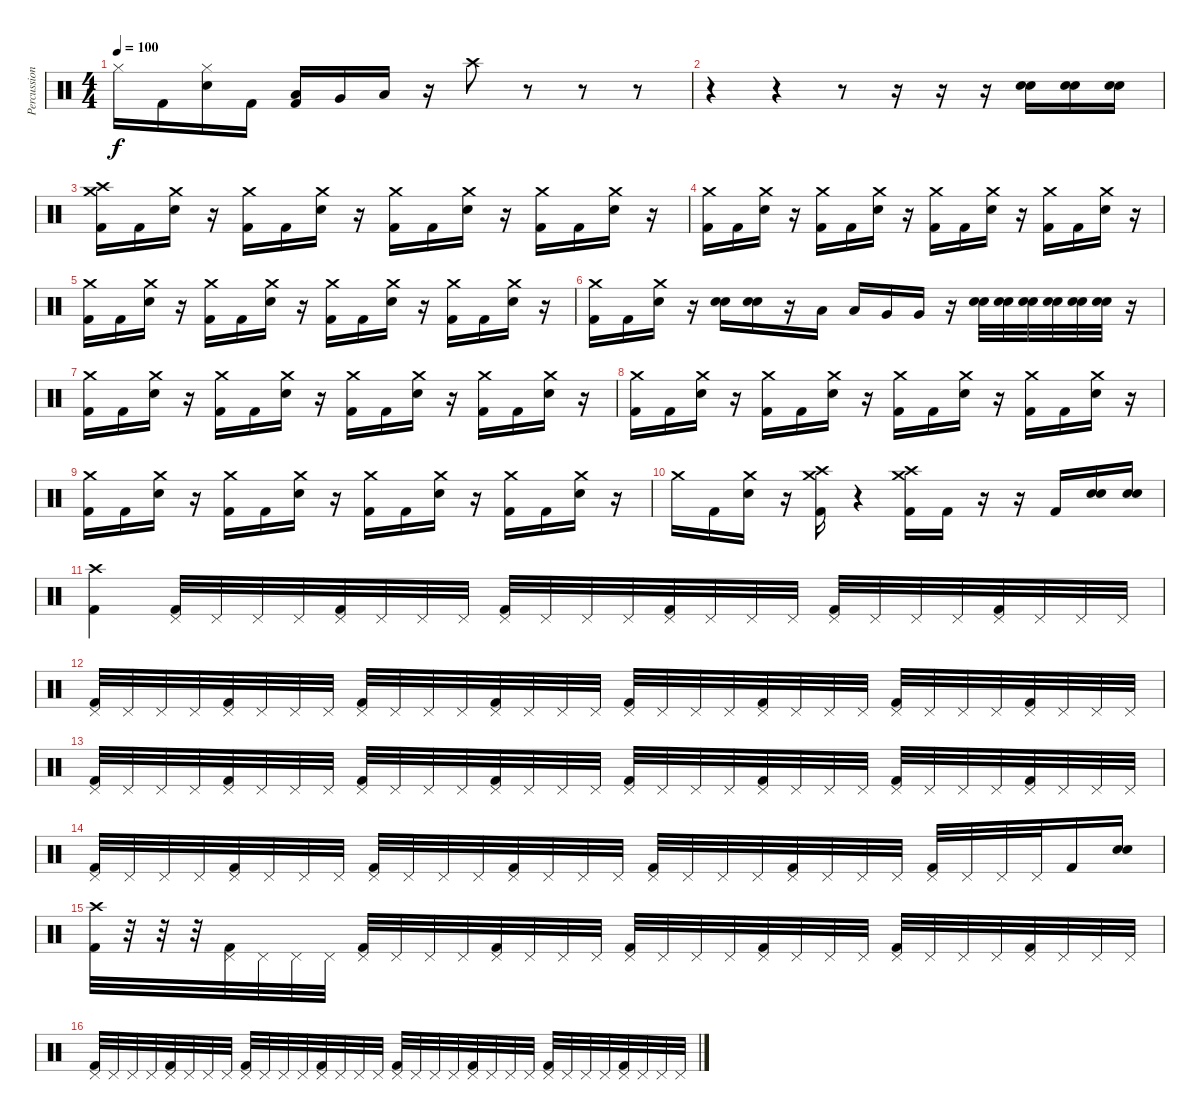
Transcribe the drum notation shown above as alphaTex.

\track ("Percussion" "Percussion") {instrument percussion}
\staff {score}
\articulation defaults
\ts (4 4)
\tempo 100
\clef neutral
\ks c "Hi-Hat (closed)".16{dy f} "Kick (hit) 2".16
("Hi-Hat (closed)" "Electric Snare (hit)").16 "Kick (hit) 2".16 ("Low Tom (hit)" "Kick (hit) 2").16 "Very Low Tom (hit)".16 "Low Floor Tom (hit)".16 r.16 "Crash high (hit)".8 r.8 r.8 r.8 |
r.4 r.4 r.8 r.16 r.16 r.16 ("Electric Snare (hit)" "Electric Snare (hit)").16 ("Electric Snare (hit)" "Electric Snare (hit)").16 ("Electric Snare (hit)" "Electric Snare (hit)").16 |
("Crash medium (hit)" "Crash high (hit)" "Kick (hit) 2").16 "Kick (hit) 2".16 ("Crash medium (hit)" "Electric Snare (hit)").16 r.16 ("Crash medium (hit)" "Kick (hit) 2").16 "Kick (hit) 2".16 ("Crash medium (hit)" "Electric Snare (hit)").16 r.16 ("Crash medium (hit)" "Kick (hit) 2").16 "Kick (hit) 2".16 ("Crash medium (hit)" "Electric Snare (hit)").16 r.16 ("Crash medium (hit)" "Kick (hit) 2").16 "Kick (hit) 2".16 ("Crash medium (hit)" "Electric Snare (hit)").16 r.16 |
("Crash medium (hit)" "Kick (hit) 2").16 "Kick (hit) 2".16 ("Crash medium (hit)" "Electric Snare (hit)").16 r.16 ("Crash medium (hit)" "Kick (hit) 2").16 "Kick (hit) 2".16 ("Crash medium (hit)" "Electric Snare (hit)").16 r.16 ("Crash medium (hit)" "Kick (hit) 2").16 "Kick (hit) 2".16 ("Crash medium (hit)" "Electric Snare (hit)").16 r.16 ("Crash medium (hit)" "Kick (hit) 2").16 "Kick (hit) 2".16 ("Crash medium (hit)" "Electric Snare (hit)").16 r.16 |
("Crash medium (hit)" "Kick (hit) 2").16 "Kick (hit) 2".16 ("Crash medium (hit)" "Electric Snare (hit)").16 r.16 ("Crash medium (hit)" "Kick (hit) 2").16 "Kick (hit) 2".16 ("Crash medium (hit)" "Electric Snare (hit)").16 r.16 ("Crash medium (hit)" "Kick (hit) 2").16 "Kick (hit) 2".16 ("Crash medium (hit)" "Electric Snare (hit)").16 r.16 ("Crash medium (hit)" "Kick (hit) 2").16 "Kick (hit) 2".16 ("Crash medium (hit)" "Electric Snare (hit)").16 r.16 |
("Crash medium (hit)" "Kick (hit) 2").16 "Kick (hit) 2".16 ("Crash medium (hit)" "Electric Snare (hit)").16 r.16 ("Electric Snare (hit)" "Electric Snare (hit)").16 ("Electric Snare (hit)" "Electric Snare (hit)").16 r.16 "Low Tom (hit)".16 "Low Tom (hit)".16 "Very Low Tom (hit)".16 "Very Low Tom (hit)".16 r.16 ("Electric Snare (hit)" "Electric Snare (hit)").32 ("Electric Snare (hit)" "Electric Snare (hit)").32 ("Electric Snare (hit)" "Electric Snare (hit)").32 ("Electric Snare (hit)" "Electric Snare (hit)").32 ("Electric Snare (hit)" "Electric Snare (hit)").32 ("Electric Snare (hit)" "Electric Snare (hit)").32 r.16 |
("Crash medium (hit)" "Kick (hit) 2").16 "Kick (hit) 2".16 ("Crash medium (hit)" "Electric Snare (hit)").16 r.16 ("Crash medium (hit)" "Kick (hit) 2").16 "Kick (hit) 2".16 ("Crash medium (hit)" "Electric Snare (hit)").16 r.16 ("Crash medium (hit)" "Kick (hit) 2").16 "Kick (hit) 2".16 ("Crash medium (hit)" "Electric Snare (hit)").16 r.16 ("Crash medium (hit)" "Kick (hit) 2").16 "Kick (hit) 2".16 ("Crash medium (hit)" "Electric Snare (hit)").16 r.16 |
("Crash medium (hit)" "Kick (hit) 2").16 "Kick (hit) 2".16 ("Crash medium (hit)" "Electric Snare (hit)").16 r.16 ("Crash medium (hit)" "Kick (hit) 2").16 "Kick (hit) 2".16 ("Crash medium (hit)" "Electric Snare (hit)").16 r.16 ("Crash medium (hit)" "Kick (hit) 2").16 "Kick (hit) 2".16 ("Crash medium (hit)" "Electric Snare (hit)").16 r.16 ("Crash medium (hit)" "Kick (hit) 2").16 "Kick (hit) 2".16 ("Crash medium (hit)" "Electric Snare (hit)").16 r.16 |
("Crash medium (hit)" "Kick (hit) 2").16 "Kick (hit) 2".16 ("Crash medium (hit)" "Electric Snare (hit)").16 r.16 ("Crash medium (hit)" "Kick (hit) 2").16 "Kick (hit) 2".16 ("Crash medium (hit)" "Electric Snare (hit)").16 r.16 ("Crash medium (hit)" "Kick (hit) 2").16 "Kick (hit) 2".16 ("Crash medium (hit)" "Electric Snare (hit)").16 r.16 ("Crash medium (hit)" "Kick (hit) 2").16 "Kick (hit) 2".16 ("Crash medium (hit)" "Electric Snare (hit)").16 r.16 |
"Crash medium (hit)".16 "Kick (hit) 2".16 ("Crash medium (hit)" "Electric Snare (hit)").16 r.16 ("Crash high (hit)" "Crash medium (hit)" "Kick (hit) 2").16 r.4 ("Crash high (hit)" "Crash medium (hit)" "Kick (hit) 2").16 "Kick (hit) 2".16 r.16 r.16 "Kick (hit) 2".16 ("Electric Snare (hit)" "Electric Snare (hit)").16 ("Electric Snare (hit)" "Electric Snare (hit)").16 |
("Crash high (hit)" "Kick (hit) 2").4 ("Pedal Hi-Hat (hit)" "Kick (hit) 2").32 "Pedal Hi-Hat (hit)".32 "Pedal Hi-Hat (hit)".32 "Pedal Hi-Hat (hit)".32 ("Pedal Hi-Hat (hit)" "Kick (hit) 2").32 "Pedal Hi-Hat (hit)".32 "Pedal Hi-Hat (hit)".32 "Pedal Hi-Hat (hit)".32 ("Pedal Hi-Hat (hit)" "Kick (hit) 2").32 "Pedal Hi-Hat (hit)".32 "Pedal Hi-Hat (hit)".32 "Pedal Hi-Hat (hit)".32 ("Pedal Hi-Hat (hit)" "Kick (hit) 2").32 "Pedal Hi-Hat (hit)".32 "Pedal Hi-Hat (hit)".32 "Pedal Hi-Hat (hit)".32 ("Pedal Hi-Hat (hit)" "Kick (hit) 2").32 "Pedal Hi-Hat (hit)".32 "Pedal Hi-Hat (hit)".32 "Pedal Hi-Hat (hit)".32 ("Pedal Hi-Hat (hit)" "Kick (hit) 2").32 "Pedal Hi-Hat (hit)".32 "Pedal Hi-Hat (hit)".32 "Pedal Hi-Hat (hit)".32 |
("Pedal Hi-Hat (hit)" "Kick (hit) 2").32 "Pedal Hi-Hat (hit)".32 "Pedal Hi-Hat (hit)".32 "Pedal Hi-Hat (hit)".32 ("Pedal Hi-Hat (hit)" "Kick (hit) 2").32 "Pedal Hi-Hat (hit)".32 "Pedal Hi-Hat (hit)".32 "Pedal Hi-Hat (hit)".32 ("Pedal Hi-Hat (hit)" "Kick (hit) 2").32 "Pedal Hi-Hat (hit)".32 "Pedal Hi-Hat (hit)".32 "Pedal Hi-Hat (hit)".32 ("Pedal Hi-Hat (hit)" "Kick (hit) 2").32 "Pedal Hi-Hat (hit)".32 "Pedal Hi-Hat (hit)".32 "Pedal Hi-Hat (hit)".32 ("Pedal Hi-Hat (hit)" "Kick (hit) 2").32 "Pedal Hi-Hat (hit)".32 "Pedal Hi-Hat (hit)".32 "Pedal Hi-Hat (hit)".32 ("Pedal Hi-Hat (hit)" "Kick (hit) 2").32 "Pedal Hi-Hat (hit)".32 "Pedal Hi-Hat (hit)".32 "Pedal Hi-Hat (hit)".32 ("Pedal Hi-Hat (hit)" "Kick (hit) 2").32 "Pedal Hi-Hat (hit)".32 "Pedal Hi-Hat (hit)".32 "Pedal Hi-Hat (hit)".32 ("Pedal Hi-Hat (hit)" "Kick (hit) 2").32 "Pedal Hi-Hat (hit)".32 "Pedal Hi-Hat (hit)".32 "Pedal Hi-Hat (hit)".32 |
("Pedal Hi-Hat (hit)" "Kick (hit) 2").32 "Pedal Hi-Hat (hit)".32 "Pedal Hi-Hat (hit)".32 "Pedal Hi-Hat (hit)".32 ("Pedal Hi-Hat (hit)" "Kick (hit) 2").32 "Pedal Hi-Hat (hit)".32 "Pedal Hi-Hat (hit)".32 "Pedal Hi-Hat (hit)".32 ("Pedal Hi-Hat (hit)" "Kick (hit) 2").32 "Pedal Hi-Hat (hit)".32 "Pedal Hi-Hat (hit)".32 "Pedal Hi-Hat (hit)".32 ("Pedal Hi-Hat (hit)" "Kick (hit) 2").32 "Pedal Hi-Hat (hit)".32 "Pedal Hi-Hat (hit)".32 "Pedal Hi-Hat (hit)".32 ("Pedal Hi-Hat (hit)" "Kick (hit) 2").32 "Pedal Hi-Hat (hit)".32 "Pedal Hi-Hat (hit)".32 "Pedal Hi-Hat (hit)".32 ("Pedal Hi-Hat (hit)" "Kick (hit) 2").32 "Pedal Hi-Hat (hit)".32 "Pedal Hi-Hat (hit)".32 "Pedal Hi-Hat (hit)".32 ("Pedal Hi-Hat (hit)" "Kick (hit) 2").32 "Pedal Hi-Hat (hit)".32 "Pedal Hi-Hat (hit)".32 "Pedal Hi-Hat (hit)".32 ("Pedal Hi-Hat (hit)" "Kick (hit) 2").32 "Pedal Hi-Hat (hit)".32 "Pedal Hi-Hat (hit)".32 "Pedal Hi-Hat (hit)".32 |
("Pedal Hi-Hat (hit)" "Kick (hit) 2").32 "Pedal Hi-Hat (hit)".32 "Pedal Hi-Hat (hit)".32 "Pedal Hi-Hat (hit)".32 ("Pedal Hi-Hat (hit)" "Kick (hit) 2").32 "Pedal Hi-Hat (hit)".32 "Pedal Hi-Hat (hit)".32 "Pedal Hi-Hat (hit)".32 ("Pedal Hi-Hat (hit)" "Kick (hit) 2").32 "Pedal Hi-Hat (hit)".32 "Pedal Hi-Hat (hit)".32 "Pedal Hi-Hat (hit)".32 ("Pedal Hi-Hat (hit)" "Kick (hit) 2").32 "Pedal Hi-Hat (hit)".32 "Pedal Hi-Hat (hit)".32 "Pedal Hi-Hat (hit)".32 ("Pedal Hi-Hat (hit)" "Kick (hit) 2").32 "Pedal Hi-Hat (hit)".32 "Pedal Hi-Hat (hit)".32 "Pedal Hi-Hat (hit)".32 ("Pedal Hi-Hat (hit)" "Kick (hit) 2").32 "Pedal Hi-Hat (hit)".32 "Pedal Hi-Hat (hit)".32 "Pedal Hi-Hat (hit)".32 ("Pedal Hi-Hat (hit)" "Kick (hit) 2").32 "Pedal Hi-Hat (hit)".32 "Pedal Hi-Hat (hit)".32 "Pedal Hi-Hat (hit)".32 "Kick (hit) 2".16 ("Electric Snare (hit)" "Electric Snare (hit)").16 |
("Crash high (hit)" "Kick (hit) 2").32 r.32 r.32 r.32 ("Pedal Hi-Hat (hit)" "Kick (hit) 2").32 "Pedal Hi-Hat (hit)".32 "Pedal Hi-Hat (hit)".32 "Pedal Hi-Hat (hit)".32 ("Pedal Hi-Hat (hit)" "Kick (hit) 2").32 "Pedal Hi-Hat (hit)".32 "Pedal Hi-Hat (hit)".32 "Pedal Hi-Hat (hit)".32 ("Pedal Hi-Hat (hit)" "Kick (hit) 2").32 "Pedal Hi-Hat (hit)".32 "Pedal Hi-Hat (hit)".32 "Pedal Hi-Hat (hit)".32 ("Pedal Hi-Hat (hit)" "Kick (hit) 2").32 "Pedal Hi-Hat (hit)".32 "Pedal Hi-Hat (hit)".32 "Pedal Hi-Hat (hit)".32 ("Pedal Hi-Hat (hit)" "Kick (hit) 2").32 "Pedal Hi-Hat (hit)".32 "Pedal Hi-Hat (hit)".32 "Pedal Hi-Hat (hit)".32 ("Pedal Hi-Hat (hit)" "Kick (hit) 2").32 "Pedal Hi-Hat (hit)".32 "Pedal Hi-Hat (hit)".32 "Pedal Hi-Hat (hit)".32 ("Pedal Hi-Hat (hit)" "Kick (hit) 2").32 "Pedal Hi-Hat (hit)".32 "Pedal Hi-Hat (hit)".32 "Pedal Hi-Hat (hit)".32 |
("Pedal Hi-Hat (hit)" "Kick (hit) 2").32 "Pedal Hi-Hat (hit)".32 "Pedal Hi-Hat (hit)".32 "Pedal Hi-Hat (hit)".32 ("Pedal Hi-Hat (hit)" "Kick (hit) 2").32 "Pedal Hi-Hat (hit)".32 "Pedal Hi-Hat (hit)".32 "Pedal Hi-Hat (hit)".32 ("Pedal Hi-Hat (hit)" "Kick (hit) 2").32 "Pedal Hi-Hat (hit)".32 "Pedal Hi-Hat (hit)".32 "Pedal Hi-Hat (hit)".32 ("Pedal Hi-Hat (hit)" "Kick (hit) 2").32 "Pedal Hi-Hat (hit)".32 "Pedal Hi-Hat (hit)".32 "Pedal Hi-Hat (hit)".32 ("Pedal Hi-Hat (hit)" "Kick (hit) 2").32 "Pedal Hi-Hat (hit)".32 "Pedal Hi-Hat (hit)".32 "Pedal Hi-Hat (hit)".32 ("Pedal Hi-Hat (hit)" "Kick (hit) 2").32 "Pedal Hi-Hat (hit)".32 "Pedal Hi-Hat (hit)".32 "Pedal Hi-Hat (hit)".32 ("Pedal Hi-Hat (hit)" "Kick (hit) 2").32 "Pedal Hi-Hat (hit)".32 "Pedal Hi-Hat (hit)".32 "Pedal Hi-Hat (hit)".32 ("Pedal Hi-Hat (hit)" "Kick (hit) 2").32 "Pedal Hi-Hat (hit)".32 "Pedal Hi-Hat (hit)".32 "Pedal Hi-Hat (hit)".32
